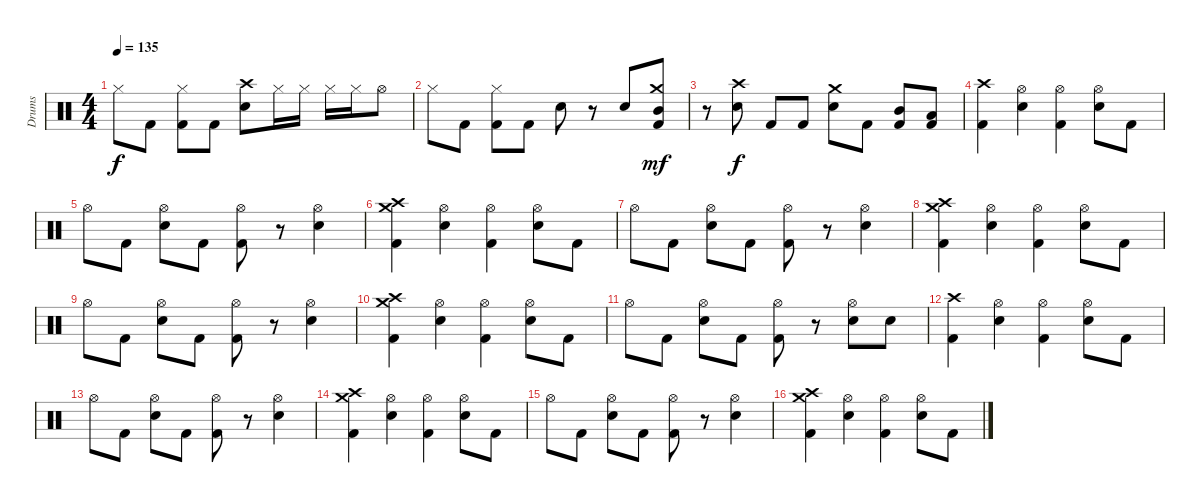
\track ("Drums" "Drums") {instrument percussion}
\staff {score}
\articulation defaults
\ts (4 4)
\tempo 135
\clef neutral
\ks c "Hi-Hat (closed)".8{dy f} "Kick (hit) 2".8
("Hi-Hat (closed)" "Kick (hit) 2").8 "Kick (hit) 2".8 ("Crash high (hit)" "Electric Snare (hit)").8 "Hi-Hat (closed)".16 "Hi-Hat (closed)".16 "Hi-Hat (closed)".16 "Hi-Hat (closed)".16 "Hi-Hat (open)".8 |
"Hi-Hat (closed)".8 "Kick (hit) 2".8 ("Hi-Hat (closed)" "Kick (hit) 2").8 "Kick (hit) 2".8 "Electric Snare (hit)".8 r.8 "Electric Snare (hit)".8 ("Crash medium (hit)" "Mid Tom (hit)" "Kick (hit) 2").8{dy mf} |
r.8 ("Crash high (hit)" "Electric Snare (hit)").8{dy f} "Kick (hit) 2".8 "Kick (hit) 2".8 ("Crash medium (hit)" "Electric Snare (hit)").8 "Kick (hit) 2".8 ("Mid Tom (hit)" "Kick (hit) 2").8 ("Low Tom (hit)" "Kick (hit) 2").8 |
("Crash high (hit)" "Kick (hit) 2").4 ("Hi-Hat (open)" "Electric Snare (hit)").4 ("Hi-Hat (open)" "Kick (hit) 2").4 ("Hi-Hat (open)" "Electric Snare (hit)").8 "Kick (hit) 2".8 |
"Hi-Hat (open)".8 "Kick (hit) 2".8 ("Hi-Hat (open)" "Electric Snare (hit)").8 "Kick (hit) 2".8 ("Hi-Hat (open)" "Kick (hit) 2").8 r.8 ("Hi-Hat (open)" "Electric Snare (hit)").4 |
("Crash high (hit)" "Crash medium (hit)" "Kick (hit) 2").4 ("Hi-Hat (open)" "Electric Snare (hit)").4 ("Hi-Hat (open)" "Kick (hit) 2").4 ("Hi-Hat (open)" "Electric Snare (hit)").8 "Kick (hit) 2".8 |
"Hi-Hat (open)".8 "Kick (hit) 2".8 ("Hi-Hat (open)" "Electric Snare (hit)").8 "Kick (hit) 2".8 ("Hi-Hat (open)" "Kick (hit) 2").8 r.8 ("Hi-Hat (open)" "Electric Snare (hit)").4 |
("Crash high (hit)" "Crash medium (hit)" "Kick (hit) 2").4 ("Hi-Hat (open)" "Electric Snare (hit)").4 ("Hi-Hat (open)" "Kick (hit) 2").4 ("Hi-Hat (open)" "Electric Snare (hit)").8 "Kick (hit) 2".8 |
"Hi-Hat (open)".8 "Kick (hit) 2".8 ("Hi-Hat (open)" "Electric Snare (hit)").8 "Kick (hit) 2".8 ("Hi-Hat (open)" "Kick (hit) 2").8 r.8 ("Hi-Hat (open)" "Electric Snare (hit)").4 |
("Crash high (hit)" "Crash medium (hit)" "Kick (hit) 2").4 ("Hi-Hat (open)" "Electric Snare (hit)").4 ("Hi-Hat (open)" "Kick (hit) 2").4 ("Hi-Hat (open)" "Electric Snare (hit)").8 "Kick (hit) 2".8 |
"Hi-Hat (open)".8 "Kick (hit) 2".8 ("Hi-Hat (open)" "Electric Snare (hit)").8 "Kick (hit) 2".8 ("Hi-Hat (open)" "Kick (hit) 2").8 r.8 ("Hi-Hat (open)" "Electric Snare (hit)").8 "Electric Snare (hit)".8 |
("Crash high (hit)" "Kick (hit) 2").4 ("Hi-Hat (open)" "Electric Snare (hit)").4 ("Hi-Hat (open)" "Kick (hit) 2").4 ("Hi-Hat (open)" "Electric Snare (hit)").8 "Kick (hit) 2".8 |
"Hi-Hat (open)".8 "Kick (hit) 2".8 ("Hi-Hat (open)" "Electric Snare (hit)").8 "Kick (hit) 2".8 ("Hi-Hat (open)" "Kick (hit) 2").8 r.8 ("Hi-Hat (open)" "Electric Snare (hit)").4 |
("Crash high (hit)" "Crash medium (hit)" "Kick (hit) 2").4 ("Hi-Hat (open)" "Electric Snare (hit)").4 ("Hi-Hat (open)" "Kick (hit) 2").4 ("Hi-Hat (open)" "Electric Snare (hit)").8 "Kick (hit) 2".8 |
"Hi-Hat (open)".8 "Kick (hit) 2".8 ("Hi-Hat (open)" "Electric Snare (hit)").8 "Kick (hit) 2".8 ("Hi-Hat (open)" "Kick (hit) 2").8 r.8 ("Hi-Hat (open)" "Electric Snare (hit)").4 |
("Crash high (hit)" "Crash medium (hit)" "Kick (hit) 2").4 ("Hi-Hat (open)" "Electric Snare (hit)").4 ("Hi-Hat (open)" "Kick (hit) 2").4 ("Hi-Hat (open)" "Electric Snare (hit)").8 "Kick (hit) 2".8
